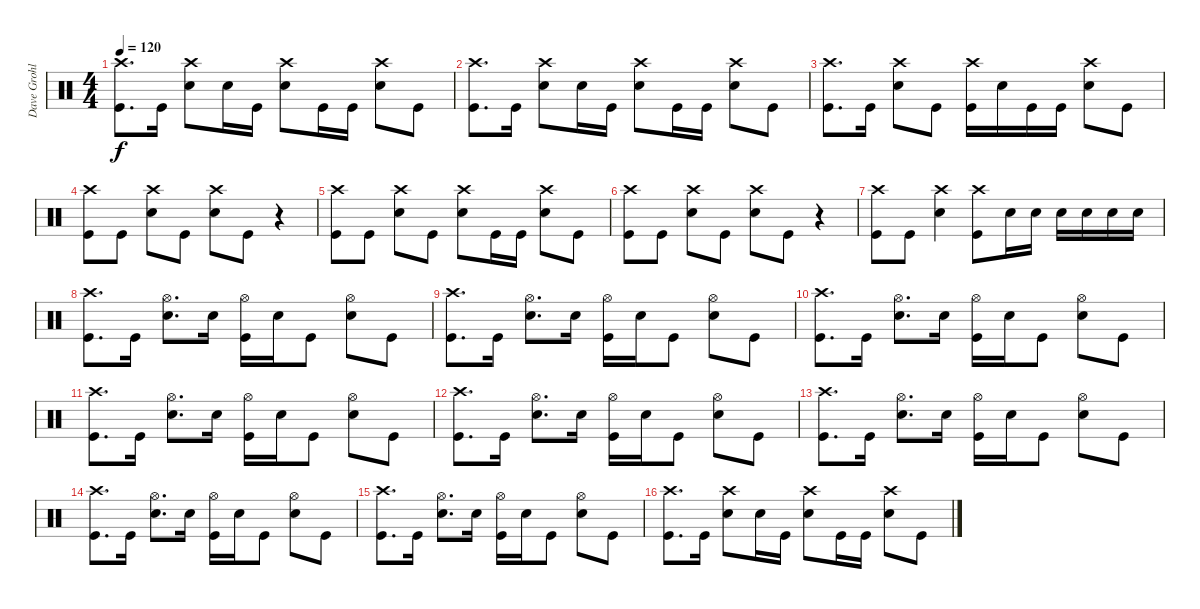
\track ("Dave Grohl - Drums" "Dave Grohl") {instrument percussion}
\staff {score}
\articulation defaults
\ts (4 4)
\tempo 120
\clef neutral
\ks c
("Crash high (hit)" "Kick (hit)").8{d dy f} "Kick (hit)".16 ("Crash high (hit)" "Snare (hit) 2").8 "Snare (hit) 2".16 "Kick (hit)".16 ("Crash high (hit)" "Snare (hit) 2").8 "Kick (hit)".16 "Kick (hit)".16 ("Crash high (hit)" "Snare (hit) 2").8 "Kick (hit)".8 |
("Crash high (hit)" "Kick (hit)").8{d} "Kick (hit)".16 ("Crash high (hit)" "Snare (hit) 2").8 "Snare (hit) 2".16 "Kick (hit)".16 ("Crash high (hit)" "Snare (hit) 2").8 "Kick (hit)".16 "Kick (hit)".16 ("Crash high (hit)" "Snare (hit) 2").8 "Kick (hit)".8 |
("Crash high (hit)" "Kick (hit)").8{d} "Kick (hit)".16 ("Crash high (hit)" "Snare (hit) 2").8 "Kick (hit)".8 ("Crash high (hit)" "Kick (hit)").16 "Snare (hit) 2".16 "Kick (hit)".16 "Kick (hit)".16 ("Crash high (hit)" "Snare (hit) 2").8 "Kick (hit)".8 |
("Crash high (hit)" "Kick (hit)").8 "Kick (hit)".8 ("Crash high (hit)" "Snare (hit) 2").8 "Kick (hit)".8 ("Crash high (hit)" "Snare (hit) 2").8 "Kick (hit)".8 r.4 |
("Crash high (hit)" "Kick (hit)").8 "Kick (hit)".8 ("Crash high (hit)" "Snare (hit) 2").8 "Kick (hit)".8 ("Crash high (hit)" "Snare (hit) 2").8 "Kick (hit)".16 "Kick (hit)".16 ("Crash high (hit)" "Snare (hit) 2").8 "Kick (hit)".8 |
("Crash high (hit)" "Kick (hit)").8 "Kick (hit)".8 ("Crash high (hit)" "Snare (hit) 2").8 "Kick (hit)".8 ("Crash high (hit)" "Snare (hit) 2").8 "Kick (hit)".8 r.4 |
("Crash high (hit)" "Kick (hit)").8 "Kick (hit)".8 ("Crash high (hit)" "Snare (hit) 2").4 ("Crash high (hit)" "Kick (hit)").8 "Snare (hit) 2".16 "Snare (hit) 2".16 "Snare (hit) 2".16 "Snare (hit) 2".16 "Snare (hit) 2".16 "Snare (hit) 2".16 |
("Crash high (hit)" "Kick (hit)").8{d} "Kick (hit)".16 ("Hi-Hat (open)" "Snare (hit) 2").8{d} "Snare (hit) 2".16 ("Hi-Hat (open)" "Kick (hit)").16 "Snare (hit) 2".16 "Kick (hit)".8 ("Hi-Hat (open)" "Snare (hit) 2").8 "Kick (hit)".8 |
("Crash high (hit)" "Kick (hit)").8{d} "Kick (hit)".16 ("Hi-Hat (open)" "Snare (hit) 2").8{d} "Snare (hit) 2".16 ("Hi-Hat (open)" "Kick (hit)").16 "Snare (hit) 2".16 "Kick (hit)".8 ("Hi-Hat (open)" "Snare (hit) 2").8 "Kick (hit)".8 |
("Crash high (hit)" "Kick (hit)").8{d} "Kick (hit)".16 ("Hi-Hat (open)" "Snare (hit) 2").8{d} "Snare (hit) 2".16 ("Hi-Hat (open)" "Kick (hit)").16 "Snare (hit) 2".16 "Kick (hit)".8 ("Hi-Hat (open)" "Snare (hit) 2").8 "Kick (hit)".8 |
("Crash high (hit)" "Kick (hit)").8{d} "Kick (hit)".16 ("Hi-Hat (open)" "Snare (hit) 2").8{d} "Snare (hit) 2".16 ("Hi-Hat (open)" "Kick (hit)").16 "Snare (hit) 2".16 "Kick (hit)".8 ("Hi-Hat (open)" "Snare (hit) 2").8 "Kick (hit)".8 |
("Crash high (hit)" "Kick (hit)").8{d} "Kick (hit)".16 ("Hi-Hat (open)" "Snare (hit) 2").8{d} "Snare (hit) 2".16 ("Hi-Hat (open)" "Kick (hit)").16 "Snare (hit) 2".16 "Kick (hit)".8 ("Hi-Hat (open)" "Snare (hit) 2").8 "Kick (hit)".8 |
("Crash high (hit)" "Kick (hit)").8{d} "Kick (hit)".16 ("Hi-Hat (open)" "Snare (hit) 2").8{d} "Snare (hit) 2".16 ("Hi-Hat (open)" "Kick (hit)").16 "Snare (hit) 2".16 "Kick (hit)".8 ("Hi-Hat (open)" "Snare (hit) 2").8 "Kick (hit)".8 |
("Crash high (hit)" "Kick (hit)").8{d} "Kick (hit)".16 ("Hi-Hat (open)" "Snare (hit) 2").8{d} "Snare (hit) 2".16 ("Hi-Hat (open)" "Kick (hit)").16 "Snare (hit) 2".16 "Kick (hit)".8 ("Hi-Hat (open)" "Snare (hit) 2").8 "Kick (hit)".8 |
("Crash high (hit)" "Kick (hit)").8{d} "Kick (hit)".16 ("Hi-Hat (open)" "Snare (hit) 2").8{d} "Snare (hit) 2".16 ("Hi-Hat (open)" "Kick (hit)").16 "Snare (hit) 2".16 "Kick (hit)".8 ("Hi-Hat (open)" "Snare (hit) 2").8 "Kick (hit)".8 |
("Crash high (hit)" "Kick (hit)").8{d} "Kick (hit)".16 ("Crash high (hit)" "Snare (hit) 2").8 "Snare (hit) 2".16 "Kick (hit)".16 ("Crash high (hit)" "Snare (hit) 2").8 "Kick (hit)".16 "Kick (hit)".16 ("Crash high (hit)" "Snare (hit) 2").8 "Kick (hit)".8
